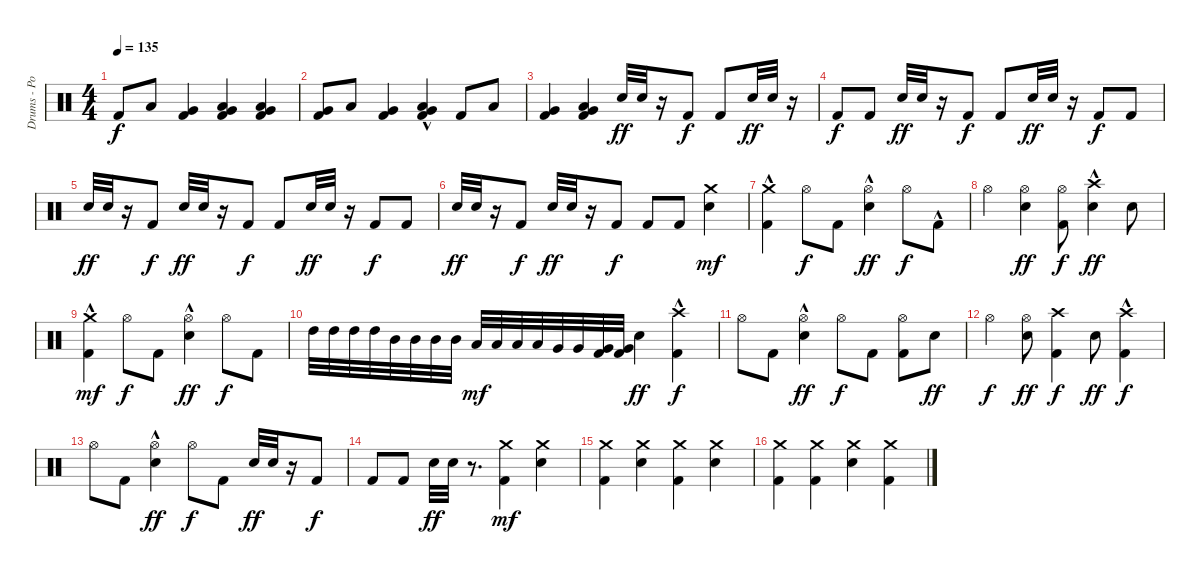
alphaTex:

\track ("Drums - Portnoy" "Drums - Po") {instrument percussion}
\staff {score}
\articulation defaults
\ts (4 4)
\tempo 135
\clef neutral
\ks c "Kick (hit) 2".8{dy f} "Low Floor Tom (hit)".8
("Very Low Tom (hit)" "Kick (hit) 2").4 ("Very Low Tom (hit)" "Low Floor Tom (hit)" "Kick (hit) 2").4 ("Low Floor Tom (hit)" "Very Low Tom (hit)" "Kick (hit) 2").4 |
("Very Low Tom (hit)" "Kick (hit) 2").8 "Low Floor Tom (hit)".8 ("Very Low Tom (hit)" "Kick (hit) 2").4 ("Very Low Tom (hit)"{hac} "Low Floor Tom (hit)"{hac} "Kick (hit) 2").4 "Kick (hit) 2".8 "Low Floor Tom (hit)".8 |
("Very Low Tom (hit)" "Kick (hit) 2").4 ("Very Low Tom (hit)" "Low Floor Tom (hit)" "Kick (hit) 2").4 "Electric Snare (hit)".32{dy ff} "Electric Snare (hit)".32 r.16 "Kick (hit) 2".8{dy f} "Kick (hit) 2".8 "Electric Snare (hit)".32{dy ff} "Electric Snare (hit)".32 r.16 |
"Kick (hit) 2".8{dy f} "Kick (hit) 2".8 "Electric Snare (hit)".32{dy ff} "Electric Snare (hit)".32 r.16 "Kick (hit) 2".8{dy f} "Kick (hit) 2".8 "Electric Snare (hit)".32{dy ff} "Electric Snare (hit)".32 r.16 "Kick (hit) 2".8{dy f} "Kick (hit) 2".8 |
"Electric Snare (hit)".32{dy ff} "Electric Snare (hit)".32 r.16 "Kick (hit) 2".8{dy f} "Electric Snare (hit)".32{dy ff} "Electric Snare (hit)".32 r.16 "Kick (hit) 2".8{dy f} "Kick (hit) 2".8 "Electric Snare (hit)".32{dy ff} "Electric Snare (hit)".32 r.16 "Kick (hit) 2".8{dy f} "Kick (hit) 2".8 |
"Electric Snare (hit)".32{dy ff} "Electric Snare (hit)".32 r.16 "Kick (hit) 2".8{dy f} "Electric Snare (hit)".32{dy ff} "Electric Snare (hit)".32 r.16 "Kick (hit) 2".8{dy f} "Kick (hit) 2".8 "Kick (hit) 2".8 ("Electric Snare (hit)" "Crash medium (hit)").4{dy mf} |
("Kick (hit) 2"{hac} "Crash medium (hit)").4 "Hi-Hat (open)".8{dy f} "Kick (hit) 2".8 ("Hi-Hat (open)" "Electric Snare (hit)"{hac}).4{dy ff} "Hi-Hat (open)".8{dy f} "Kick (hit) 2"{hac}.8 |
"Hi-Hat (open)".4 ("Hi-Hat (open)" "Electric Snare (hit)").4{dy ff} ("Kick (hit) 2" "Hi-Hat (open)").8{dy f} ("Crash high (hit)"{hac} "Electric Snare (hit)").4{dy ff} "Electric Snare (hit)".8 |
("Kick (hit) 2"{hac} "Crash medium (hit)").4{dy mf} "Hi-Hat (open)".8{dy f} "Kick (hit) 2".8 ("Hi-Hat (open)" "Electric Snare (hit)"{hac}).4{dy ff} "Hi-Hat (open)".8{dy f} "Kick (hit) 2".8 |
"High Tom (hit)".32 "High Tom (hit)".32 "High Tom (hit)".32 "High Tom (hit)".32 "Mid Tom (hit)".32 "Mid Tom (hit)".32 "Mid Tom (hit)".32 "Mid Tom (hit)".32 "Low Tom (hit)".32{dy mf} "Low Tom (hit)".32 "Low Tom (hit)".32 "Low Tom (hit)".32 "Very Low Tom (hit)".32 "Very Low Tom (hit)".32 ("Kick (hit) 2" "Very Low Tom (hit)").32 ("Kick (hit) 2" "Very Low Tom (hit)").32 "Electric Snare (hit)".4{dy ff} ("Kick (hit) 2"{hac} "Crash high (hit)").4{dy f} |
"Hi-Hat (open)".8 "Kick (hit) 2".8 ("Hi-Hat (open)" "Electric Snare (hit)"{hac}).4{dy ff} "Hi-Hat (open)".8{dy f} "Kick (hit) 2".8 ("Hi-Hat (open)" "Kick (hit) 2").8 "Electric Snare (hit)".8{dy ff} |
"Hi-Hat (open)".4{dy f} ("Hi-Hat (open)" "Electric Snare (hit)").8{dy ff} ("Kick (hit) 2" "Crash high (hit)").4{dy f} "Electric Snare (hit)".8{dy ff} ("Kick (hit) 2"{hac} "Crash high (hit)").4{dy f} |
"Hi-Hat (open)".8 "Kick (hit) 2".8 ("Hi-Hat (open)" "Electric Snare (hit)"{hac}).4{dy ff} "Hi-Hat (open)".8{dy f} "Kick (hit) 2".8 "Electric Snare (hit)".32{dy ff} "Electric Snare (hit)".32 r.16 "Kick (hit) 2".8{dy f} |
"Kick (hit) 2".8 "Kick (hit) 2".8 "Electric Snare (hit)".32{dy ff} "Electric Snare (hit)".32 r.8{d} ("Kick (hit) 2" "Crash medium (hit)").4{dy mf} ("Electric Snare (hit)" "Crash medium (hit)").4 |
("Kick (hit) 2" "Crash medium (hit)").4 ("Electric Snare (hit)" "Crash medium (hit)").4 ("Kick (hit) 2" "Crash medium (hit)").4 ("Electric Snare (hit)" "Crash medium (hit)").4 |
("Kick (hit) 2" "Crash medium (hit)").4 ("Kick (hit) 2" "Crash medium (hit)").4 ("Electric Snare (hit)" "Crash medium (hit)").4 ("Kick (hit) 2" "Crash medium (hit)").4
